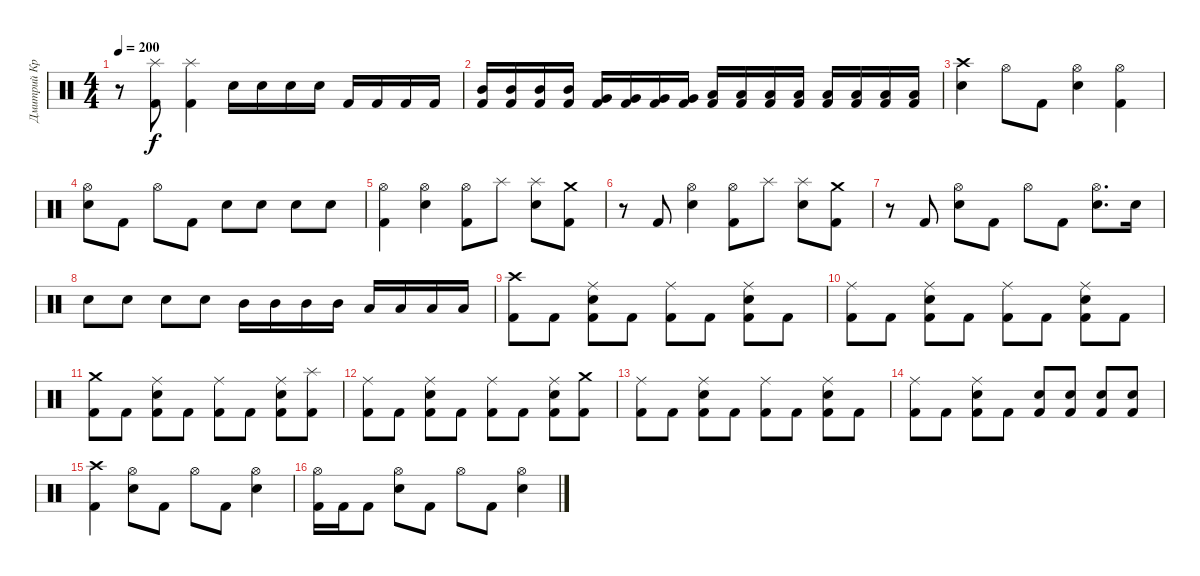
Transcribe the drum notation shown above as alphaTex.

\track ("Дмитрий Кривенков" "Дмитрий Кр") {instrument percussion}
\staff {score}
\articulation defaults
\ts (4 4)
\tempo 200
\clef neutral
\ks c
r.8{dy f} ("Splash (hit)" "Kick (hit) 2").8 ("Splash (hit)" "Kick (hit) 2").4 "Electric Snare (hit)".16 "Electric Snare (hit)".16 "Electric Snare (hit)".16 "Electric Snare (hit)".16 "Kick (hit) 2".16 "Kick (hit) 2".16 "Kick (hit) 2".16 "Kick (hit) 2".16 |
("Mid Tom (hit)" "Kick (hit) 2").16 ("Mid Tom (hit)" "Kick (hit) 2").16 ("Mid Tom (hit)" "Kick (hit) 2").16 ("Mid Tom (hit)" "Kick (hit) 2").16 ("Very Low Tom (hit)" "Kick (hit) 2").16 ("Very Low Tom (hit)" "Kick (hit) 2").16 ("Very Low Tom (hit)" "Kick (hit) 2").16 ("Very Low Tom (hit)" "Kick (hit) 2").16 ("Low Tom (hit)" "Kick (hit) 2").16 ("Low Tom (hit)" "Kick (hit) 2").16 ("Low Tom (hit)" "Kick (hit) 2").16 ("Low Tom (hit)" "Kick (hit) 2").16 ("Low Floor Tom (hit)" "Kick (hit) 2").16 ("Low Floor Tom (hit)" "Kick (hit) 2").16 ("Low Floor Tom (hit)" "Kick (hit) 2").16 ("Low Floor Tom (hit)" "Kick (hit) 2").16 |
("Crash high (hit)" "Electric Snare (hit)").4 "Hi-Hat (open)".8 "Kick (hit) 2".8 ("Hi-Hat (open)" "Electric Snare (hit)").4 ("Hi-Hat (open)" "Kick (hit) 2").4 |
("Hi-Hat (open)" "Electric Snare (hit)").8 "Kick (hit) 2".8 "Hi-Hat (open)".8 "Kick (hit) 2".8 "Electric Snare (hit)".8 "Electric Snare (hit)".8 "Electric Snare (hit)".8 "Electric Snare (hit)".8 |
("Hi-Hat (open)" "Kick (hit) 2").4 ("Hi-Hat (open)" "Electric Snare (hit)").4 ("Hi-Hat (open)" "Kick (hit) 2").8 "Splash (hit)".8 ("Splash (hit)" "Electric Snare (hit)").8 ("Crash medium (hit)" "Kick (hit) 2").8 |
r.8 "Kick (hit) 2".8 ("Hi-Hat (open)" "Electric Snare (hit)").4 ("Hi-Hat (open)" "Kick (hit) 2").8 "Splash (hit)".8 ("Splash (hit)" "Electric Snare (hit)").8 ("Crash medium (hit)" "Kick (hit) 2").8 |
r.8 "Kick (hit) 2".8 ("Hi-Hat (open)" "Electric Snare (hit)").8 "Kick (hit) 2".8 "Hi-Hat (open)".8 "Kick (hit) 2".8 ("Hi-Hat (open)" "Electric Snare (hit)").8{d} "Electric Snare (hit)".16 |
"Electric Snare (hit)".8 "Electric Snare (hit)".8 "Electric Snare (hit)".8 "Electric Snare (hit)".8 "Mid Tom (hit)".16 "Mid Tom (hit)".16 "Mid Tom (hit)".16 "Mid Tom (hit)".16 "Low Tom (hit)".16 "Low Tom (hit)".16 "Low Tom (hit)".16 "Low Tom (hit)".16 |
("Crash high (hit)" "Kick (hit) 2").8 "Kick (hit) 2".8 ("Ride (middle)" "Electric Snare (hit)" "Kick (hit) 2").8 "Kick (hit) 2".8 ("Ride (middle)" "Kick (hit) 2").8 "Kick (hit) 2".8 ("Ride (middle)" "Electric Snare (hit)" "Kick (hit) 2").8 "Kick (hit) 2".8 |
("Ride (middle)" "Kick (hit) 2").8 "Kick (hit) 2".8 ("Ride (middle)" "Electric Snare (hit)" "Kick (hit) 2").8 "Kick (hit) 2".8 ("Ride (middle)" "Kick (hit) 2").8 "Kick (hit) 2".8 ("Ride (middle)" "Electric Snare (hit)" "Kick (hit) 2").8 "Kick (hit) 2".8 |
("Crash medium (hit)" "Kick (hit) 2").8 "Kick (hit) 2".8 ("Ride (middle)" "Electric Snare (hit)" "Kick (hit) 2").8 "Kick (hit) 2".8 ("Ride (middle)" "Kick (hit) 2").8 "Kick (hit) 2".8 ("Ride (middle)" "Electric Snare (hit)" "Kick (hit) 2").8 ("Splash (hit)" "Kick (hit) 2").8 |
("Ride (middle)" "Kick (hit) 2").8 "Kick (hit) 2".8 ("Ride (middle)" "Electric Snare (hit)" "Kick (hit) 2").8 "Kick (hit) 2".8 ("Ride (middle)" "Kick (hit) 2").8 "Kick (hit) 2".8 ("Ride (middle)" "Electric Snare (hit)" "Kick (hit) 2").8 ("Crash medium (hit)" "Kick (hit) 2").8 |
("Ride (middle)" "Kick (hit) 2").8 "Kick (hit) 2".8 ("Ride (middle)" "Electric Snare (hit)" "Kick (hit) 2").8 "Kick (hit) 2".8 ("Ride (middle)" "Kick (hit) 2").8 "Kick (hit) 2".8 ("Ride (middle)" "Electric Snare (hit)" "Kick (hit) 2").8 "Kick (hit) 2".8 |
("Ride (middle)" "Kick (hit) 2").8 "Kick (hit) 2".8 ("Ride (middle)" "Electric Snare (hit)" "Kick (hit) 2").8 "Kick (hit) 2".8 ("Electric Snare (hit)" "Kick (hit) 2").8 ("Electric Snare (hit)" "Kick (hit) 2").8 ("Electric Snare (hit)" "Kick (hit) 2").8 ("Electric Snare (hit)" "Kick (hit) 2").8 |
("Crash high (hit)" "Kick (hit) 2").4 ("Hi-Hat (open)" "Electric Snare (hit)").8 "Kick (hit) 2".8 "Hi-Hat (open)".8 "Kick (hit) 2".8 ("Hi-Hat (open)" "Electric Snare (hit)").4 |
("Hi-Hat (open)" "Kick (hit) 2").16 "Kick (hit) 2".16 "Kick (hit) 2".8 ("Hi-Hat (open)" "Electric Snare (hit)").8 "Kick (hit) 2".8 "Hi-Hat (open)".8 "Kick (hit) 2".8 ("Hi-Hat (open)" "Electric Snare (hit)").4
